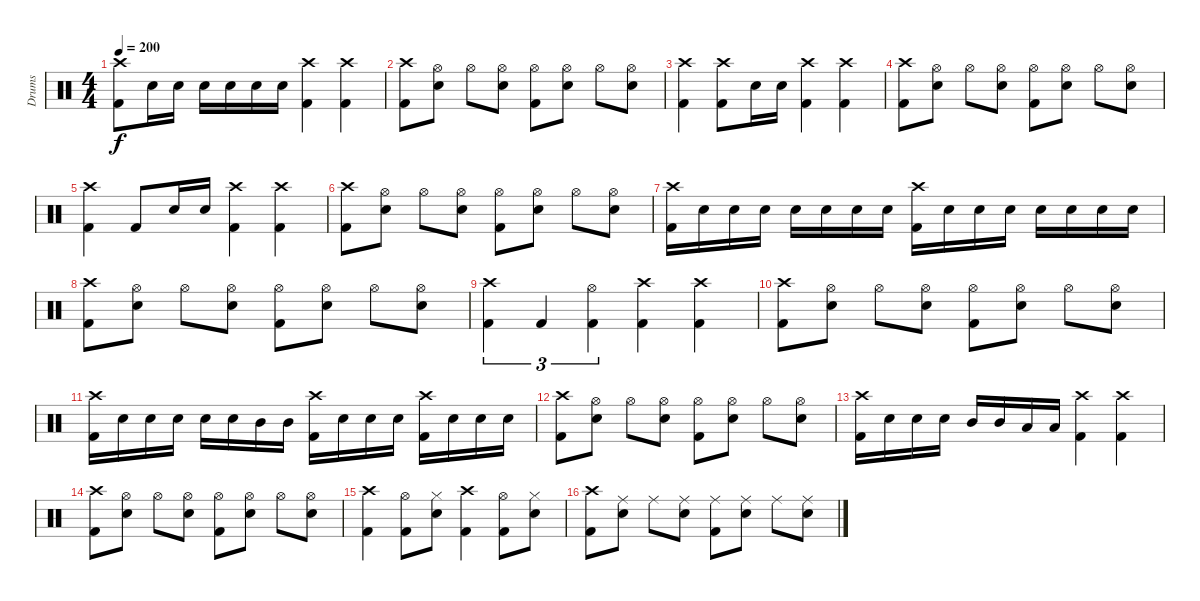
\track ("Drums" "Drums") {instrument percussion}
\staff {score}
\articulation defaults
\ts (4 4)
\tempo 200
\clef neutral
\ks c
("Kick (hit) 2" "Crash high (hit)").8{dy f} "Electric Snare (hit)".16 "Electric Snare (hit)".16 "Electric Snare (hit)".16 "Electric Snare (hit)".16 "Electric Snare (hit)".16 "Electric Snare (hit)".16 ("Kick (hit) 2" "Crash high (hit)").4 ("Kick (hit) 2" "Crash high (hit)").4 |
("Kick (hit) 2" "Crash high (hit)").8 ("Electric Snare (hit)" "Hi-Hat (open)").8 "Hi-Hat (open)".8 ("Electric Snare (hit)" "Hi-Hat (open)").8 ("Kick (hit) 2" "Hi-Hat (open)").8 ("Electric Snare (hit)" "Hi-Hat (open)").8 "Hi-Hat (open)".8 ("Electric Snare (hit)" "Hi-Hat (open)").8 |
("Kick (hit) 2" "Crash high (hit)").4 ("Kick (hit) 2" "Crash high (hit)").8 "Electric Snare (hit)".16 "Electric Snare (hit)".16 ("Kick (hit) 2" "Crash high (hit)").4 ("Kick (hit) 2" "Crash high (hit)").4 |
("Kick (hit) 2" "Crash high (hit)").8 ("Electric Snare (hit)" "Hi-Hat (open)").8 "Hi-Hat (open)".8 ("Electric Snare (hit)" "Hi-Hat (open)").8 ("Kick (hit) 2" "Hi-Hat (open)").8 ("Electric Snare (hit)" "Hi-Hat (open)").8 "Hi-Hat (open)".8 ("Electric Snare (hit)" "Hi-Hat (open)").8 |
("Kick (hit) 2" "Crash high (hit)").4 "Kick (hit) 2".8 "Electric Snare (hit)".16 "Electric Snare (hit)".16 ("Kick (hit) 2" "Crash high (hit)").4 ("Kick (hit) 2" "Crash high (hit)").4 |
("Kick (hit) 2" "Crash high (hit)").8 ("Electric Snare (hit)" "Hi-Hat (open)").8 "Hi-Hat (open)".8 ("Electric Snare (hit)" "Hi-Hat (open)").8 ("Kick (hit) 2" "Hi-Hat (open)").8 ("Electric Snare (hit)" "Hi-Hat (open)").8 "Hi-Hat (open)".8 ("Electric Snare (hit)" "Hi-Hat (open)").8 |
("Kick (hit) 2" "Crash high (hit)").16 "Electric Snare (hit)".16 "Electric Snare (hit)".16 "Electric Snare (hit)".16 "Electric Snare (hit)".16 "Electric Snare (hit)".16 "Electric Snare (hit)".16 "Electric Snare (hit)".16 ("Kick (hit) 2" "Crash high (hit)").16 "Electric Snare (hit)".16 "Electric Snare (hit)".16 "Electric Snare (hit)".16 "Electric Snare (hit)".16 "Electric Snare (hit)".16 "Electric Snare (hit)".16 "Electric Snare (hit)".16 |
("Kick (hit) 2" "Crash high (hit)").8 ("Electric Snare (hit)" "Hi-Hat (open)").8 "Hi-Hat (open)".8 ("Electric Snare (hit)" "Hi-Hat (open)").8 ("Kick (hit) 2" "Hi-Hat (open)").8 ("Electric Snare (hit)" "Hi-Hat (open)").8 "Hi-Hat (open)".8 ("Electric Snare (hit)" "Hi-Hat (open)").8 |
("Kick (hit) 2" "Crash high (hit)").4{tu (3 2)} "Kick (hit) 2".4{tu (3 2)} ("Kick (hit) 2" "Hi-Hat (open)").4{tu (3 2)} ("Kick (hit) 2" "Crash high (hit)").4 ("Kick (hit) 2" "Crash high (hit)").4 |
("Kick (hit) 2" "Crash high (hit)").8 ("Electric Snare (hit)" "Hi-Hat (open)").8 "Hi-Hat (open)".8 ("Electric Snare (hit)" "Hi-Hat (open)").8 ("Kick (hit) 2" "Hi-Hat (open)").8 ("Electric Snare (hit)" "Hi-Hat (open)").8 "Hi-Hat (open)".8 ("Electric Snare (hit)" "Hi-Hat (open)").8 |
("Kick (hit) 2" "Crash high (hit)").16 "Electric Snare (hit)".16 "Electric Snare (hit)".16 "Electric Snare (hit)".16 "Electric Snare (hit)".16 "Electric Snare (hit)".16 "Mid Tom (hit)".16 "Mid Tom (hit)".16 ("Kick (hit) 2" "Crash high (hit)").16 "Electric Snare (hit)".16 "Electric Snare (hit)".16 "Electric Snare (hit)".16 ("Kick (hit) 2" "Crash high (hit)").16 "Electric Snare (hit)".16 "Electric Snare (hit)".16 "Electric Snare (hit)".16 |
("Kick (hit) 2" "Crash high (hit)").8 ("Electric Snare (hit)" "Hi-Hat (open)").8 "Hi-Hat (open)".8 ("Electric Snare (hit)" "Hi-Hat (open)").8 ("Kick (hit) 2" "Hi-Hat (open)").8 ("Electric Snare (hit)" "Hi-Hat (open)").8 "Hi-Hat (open)".8 ("Electric Snare (hit)" "Hi-Hat (open)").8 |
("Kick (hit) 2" "Crash high (hit)").16 "Electric Snare (hit)".16 "Electric Snare (hit)".16 "Electric Snare (hit)".16 "Mid Tom (hit)".16 "Mid Tom (hit)".16 "Low Tom (hit)".16 "Low Tom (hit)".16 ("Kick (hit) 2" "Crash high (hit)").4 ("Kick (hit) 2" "Crash high (hit)").4 |
("Kick (hit) 2" "Crash high (hit)").8 ("Electric Snare (hit)" "Hi-Hat (open)").8 "Hi-Hat (open)".8 ("Electric Snare (hit)" "Hi-Hat (open)").8 ("Kick (hit) 2" "Hi-Hat (open)").8 ("Electric Snare (hit)" "Hi-Hat (open)").8 "Hi-Hat (open)".8 ("Electric Snare (hit)" "Hi-Hat (open)").8 |
("Kick (hit) 2" "Crash high (hit)").4 ("Kick (hit) 2" "Hi-Hat (open)").8 ("Electric Snare (hit)" "Hi-Hat (closed)").8 ("Kick (hit) 2" "Crash high (hit)").4 ("Kick (hit) 2" "Hi-Hat (open)").8 ("Electric Snare (hit)" "Hi-Hat (closed)").8 |
("Kick (hit) 2" "Crash high (hit)").8 ("Electric Snare (hit)" "Ride (middle)").8 "Ride (middle)".8 ("Electric Snare (hit)" "Ride (middle)").8 ("Kick (hit) 2" "Ride (middle)").8 ("Electric Snare (hit)" "Ride (middle)").8 "Ride (middle)".8 ("Electric Snare (hit)" "Ride (middle)").8
